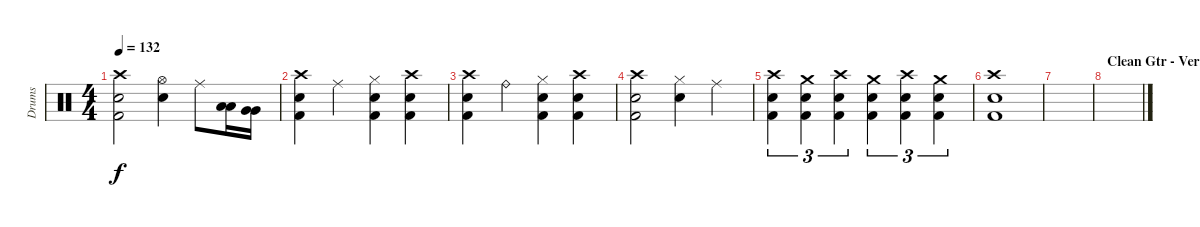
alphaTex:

\track ("Drums" "Drums") {instrument percussion}
\staff {score}
\articulation defaults
\ts (4 4)
\tempo 132
\clef neutral
\ks c
("Crash high (hit)" "Snare (hit) 2" "Kick (hit) 2").2{dy f} ("Hi-Hat (open)" "Snare (hit) 2").4 "Ride (middle)".8 ("Low Tom (hit)" "Low Tom (hit)").16 ("Very Low Tom (hit)" "Very Low Tom (hit)").16 |
("Crash high (hit)" "Snare (hit) 2" "Kick (hit) 2").4 "Ride (middle)".4 ("Hi-Hat (closed)" "Snare (hit) 2" "Kick (hit) 2").4 ("Crash high (hit)" "Snare (hit) 2" "Kick (hit) 2").4 |
("Crash high (hit)" "Snare (hit) 2" "Kick (hit) 2").4 "Ride (bell)".4 ("Hi-Hat (closed)" "Snare (hit) 2" "Kick (hit) 2").4 ("Crash high (hit)" "Snare (hit) 2" "Kick (hit) 2").4 |
("Crash high (hit)" "Snare (hit) 2" "Kick (hit) 2").2 ("Hi-Hat (closed)" "Snare (hit) 2").4 "Ride (middle)".4 |
("Crash high (hit)" "Snare (hit) 2" "Kick (hit) 2").4{tu (3 2)} ("Crash medium (hit)" "Snare (hit) 2" "Kick (hit) 2").4{tu (3 2)} ("Crash high (hit)" "Snare (hit) 2" "Kick (hit) 2").4{tu (3 2)} ("Crash medium (hit)" "Snare (hit) 2" "Kick (hit) 2").4{tu (3 2)} ("Crash high (hit)" "Snare (hit) 2" "Kick (hit) 2").4{tu (3 2)} ("Crash medium (hit)" "Snare (hit) 2" "Kick (hit) 2").4{tu (3 2)} |
("Crash high (hit)" "Snare (hit) 2" "Kick (hit) 2").1 |
|
\section ("" "Clean Gtr - Verse 3")
